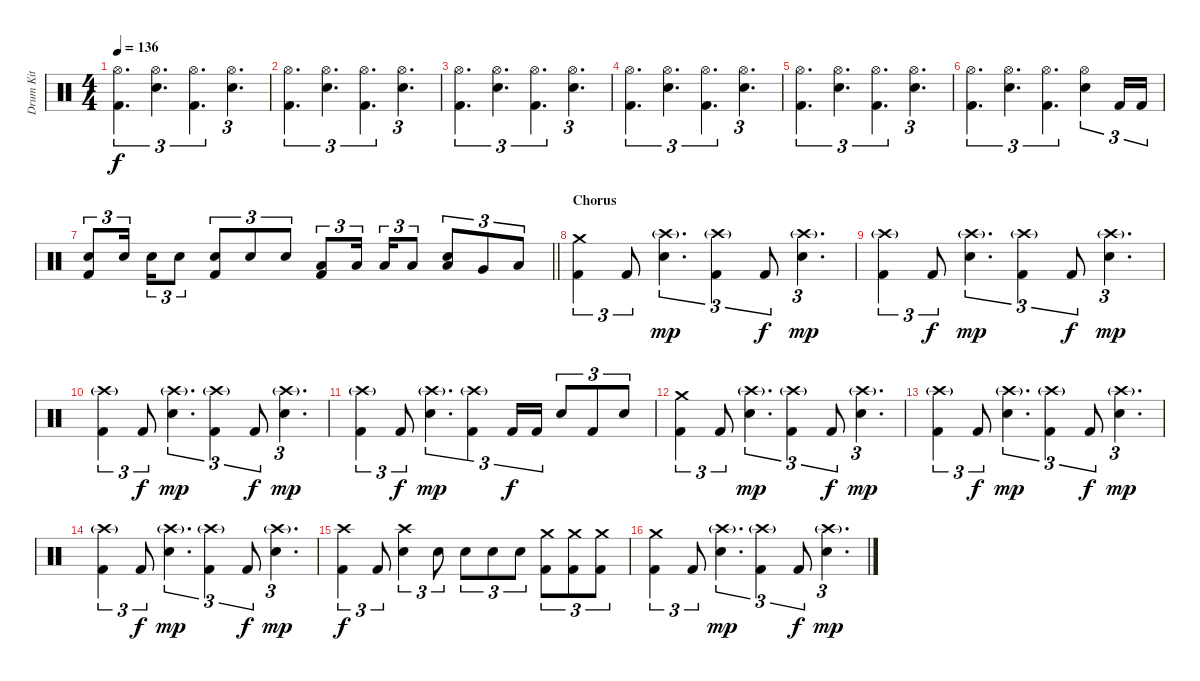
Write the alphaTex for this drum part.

\track ("Drum Kit" "Drum Kit") {instrument percussion}
\staff {score}
\articulation defaults
\ts (4 4)
\tempo 136
\clef neutral
\ks c
("Hi-Hat (open)" "Kick (hit) 2").4{d tu (3 2) dy f} ("Hi-Hat (open)" "Electric Snare (hit)").4{d tu (3 2)} ("Hi-Hat (open)" "Kick (hit) 2").4{d tu (3 2)} ("Hi-Hat (open)" "Electric Snare (hit)").4{d tu (3 2)} |
("Hi-Hat (open)" "Kick (hit) 2").4{d tu (3 2)} ("Hi-Hat (open)" "Electric Snare (hit)").4{d tu (3 2)} ("Hi-Hat (open)" "Kick (hit) 2").4{d tu (3 2)} ("Hi-Hat (open)" "Electric Snare (hit)").4{d tu (3 2)} |
("Hi-Hat (open)" "Kick (hit) 2").4{d tu (3 2)} ("Hi-Hat (open)" "Electric Snare (hit)").4{d tu (3 2)} ("Hi-Hat (open)" "Kick (hit) 2").4{d tu (3 2)} ("Hi-Hat (open)" "Electric Snare (hit)").4{d tu (3 2)} |
("Hi-Hat (open)" "Kick (hit) 2").4{d tu (3 2)} ("Hi-Hat (open)" "Electric Snare (hit)").4{d tu (3 2)} ("Hi-Hat (open)" "Kick (hit) 2").4{d tu (3 2)} ("Hi-Hat (open)" "Electric Snare (hit)").4{d tu (3 2)} |
("Hi-Hat (open)" "Kick (hit) 2").4{d tu (3 2)} ("Hi-Hat (open)" "Electric Snare (hit)").4{d tu (3 2)} ("Hi-Hat (open)" "Kick (hit) 2").4{d tu (3 2)} ("Hi-Hat (open)" "Electric Snare (hit)").4{d tu (3 2)} |
("Hi-Hat (open)" "Kick (hit) 2").4{d tu (3 2)} ("Hi-Hat (open)" "Electric Snare (hit)").4{d tu (3 2)} ("Hi-Hat (open)" "Kick (hit) 2").4{d tu (3 2)} ("Hi-Hat (open)" "Electric Snare (hit)").4{tu (3 2)} "Kick (hit) 2".16{tu (3 2)} "Kick (hit) 2".16{tu (3 2)} |
\barLineRight lightlight
("Electric Snare (hit)" "Kick (hit) 2").8{tu (3 2)} "Electric Snare (hit)".16{tu (3 2) beam splitsecondary} "Electric Snare (hit)".16{tu (3 2)} "Electric Snare (hit)".8{tu (3 2)} ("Electric Snare (hit)" "Kick (hit) 2").8{tu (3 2)} "Electric Snare (hit)".8{tu (3 2)} "Electric Snare (hit)".8{tu (3 2)} ("Low Tom (hit)" "Kick (hit) 2").8{tu (3 2)} "Low Tom (hit)".16{tu (3 2) beam splitsecondary} "Low Tom (hit)".16{tu (3 2)} "Low Tom (hit)".8{tu (3 2)} ("Low Tom (hit)" "Snare (hit)").8{tu (3 2)} "Very Low Tom (hit)".8{tu (3 2)} "Low Floor Tom (hit)".8{tu (3 2)} |
\section ("" "Chorus")
("Crash medium (hit)" "Kick (hit) 2").4{tu (3 2)} "Kick (hit) 2".8{tu (3 2)} ("Crash high (hit)"{g} "Electric Snare (hit)").4{d tu (3 2) dy mp} ("Crash high (hit)"{g} "Kick (hit) 2").4{tu (3 2)} "Kick (hit) 2".8{tu (3 2) dy f} ("Crash high (hit)"{g} "Electric Snare (hit)").4{d tu (3 2) dy mp} |
("Crash high (hit)"{g} "Kick (hit) 2").4{tu (3 2)} "Kick (hit) 2".8{tu (3 2) dy f} ("Crash high (hit)"{g} "Electric Snare (hit)").4{d tu (3 2) dy mp} ("Crash high (hit)"{g} "Kick (hit) 2").4{tu (3 2)} "Kick (hit) 2".8{tu (3 2) dy f} ("Crash high (hit)"{g} "Electric Snare (hit)").4{d tu (3 2) dy mp} |
("Crash high (hit)"{g} "Kick (hit) 2").4{tu (3 2)} "Kick (hit) 2".8{tu (3 2) dy f} ("Crash high (hit)"{g} "Electric Snare (hit)").4{d tu (3 2) dy mp} ("Crash high (hit)"{g} "Kick (hit) 2").4{tu (3 2)} "Kick (hit) 2".8{tu (3 2) dy f} ("Crash high (hit)"{g} "Electric Snare (hit)").4{d tu (3 2) dy mp} |
("Crash high (hit)"{g} "Kick (hit) 2").4{tu (3 2)} "Kick (hit) 2".8{tu (3 2) dy f} ("Crash high (hit)"{g} "Electric Snare (hit)").4{d tu (3 2) dy mp} ("Crash high (hit)"{g} "Kick (hit) 2").4{tu (3 2)} "Kick (hit) 2".16{tu (3 2) dy f} "Kick (hit) 2".16{tu (3 2)} "Electric Snare (hit)".8{tu (3 2)} "Kick (hit) 2".8{tu (3 2)} "Electric Snare (hit)".8{tu (3 2)} |
("Crash medium (hit)" "Kick (hit) 2").4{tu (3 2)} "Kick (hit) 2".8{tu (3 2)} ("Crash high (hit)"{g} "Electric Snare (hit)").4{d tu (3 2) dy mp} ("Crash high (hit)"{g} "Kick (hit) 2").4{tu (3 2)} "Kick (hit) 2".8{tu (3 2) dy f} ("Crash high (hit)"{g} "Electric Snare (hit)").4{d tu (3 2) dy mp} |
("Crash high (hit)"{g} "Kick (hit) 2").4{tu (3 2)} "Kick (hit) 2".8{tu (3 2) dy f} ("Crash high (hit)"{g} "Electric Snare (hit)").4{d tu (3 2) dy mp} ("Crash high (hit)"{g} "Kick (hit) 2").4{tu (3 2)} "Kick (hit) 2".8{tu (3 2) dy f} ("Crash high (hit)"{g} "Electric Snare (hit)").4{d tu (3 2) dy mp} |
("Crash high (hit)"{g} "Kick (hit) 2").4{tu (3 2)} "Kick (hit) 2".8{tu (3 2) dy f} ("Crash high (hit)"{g} "Electric Snare (hit)").4{d tu (3 2) dy mp} ("Crash high (hit)"{g} "Kick (hit) 2").4{tu (3 2)} "Kick (hit) 2".8{tu (3 2) dy f} ("Crash high (hit)"{g} "Electric Snare (hit)").4{d tu (3 2) dy mp} |
("Crash high (hit)" "Kick (hit) 2").4{tu (3 2) dy f} "Kick (hit) 2".8{tu (3 2)} ("Crash high (hit)" "Electric Snare (hit)").4{tu (3 2)} "Electric Snare (hit)".8{tu (3 2)} "Electric Snare (hit)".8{tu (3 2)} "Electric Snare (hit)".8{tu (3 2)} "Electric Snare (hit)".8{tu (3 2)} ("Crash medium (hit)" "Kick (hit) 2").8{tu (3 2)} ("Crash medium (hit)" "Kick (hit) 2").8{tu (3 2)} ("Crash medium (hit)" "Kick (hit) 2").8{tu (3 2)} |
("Crash medium (hit)" "Kick (hit) 2").4{tu (3 2)} "Kick (hit) 2".8{tu (3 2)} ("Crash high (hit)"{g} "Electric Snare (hit)").4{d tu (3 2) dy mp} ("Crash high (hit)"{g} "Kick (hit) 2").4{tu (3 2)} "Kick (hit) 2".8{tu (3 2) dy f} ("Crash high (hit)"{g} "Electric Snare (hit)").4{d tu (3 2) dy mp}
